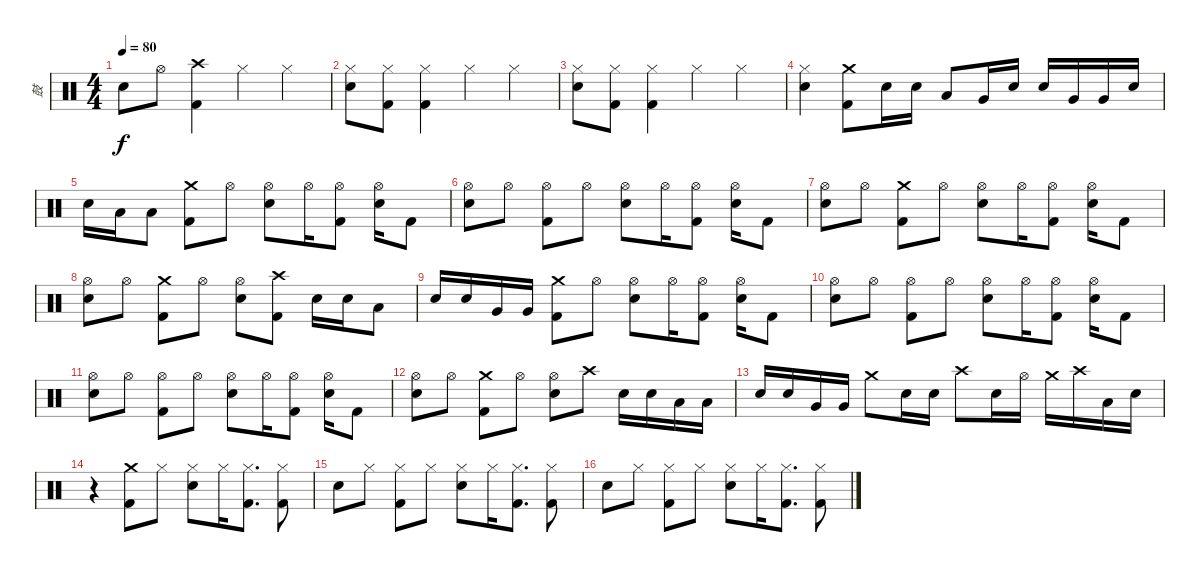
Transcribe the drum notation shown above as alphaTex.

\track ("鼓" "鼓") {instrument percussion}
\staff {score}
\articulation defaults
\ts (4 4)
\tempo 80
\clef neutral
\ks c "Snare (hit) 2".8{dy f} "Hi-Hat (open)".8
("Crash high (hit)" "Kick (hit) 2").4 "Hi-Hat (closed)".4 "Hi-Hat (closed)".4 |
("Hi-Hat (closed)" "Snare (hit) 2").8 ("Hi-Hat (closed)" "Kick (hit) 2").8 ("Hi-Hat (closed)" "Kick (hit) 2").4 "Hi-Hat (closed)".4 "Hi-Hat (closed)".4 |
("Hi-Hat (closed)" "Snare (hit) 2").8 ("Hi-Hat (closed)" "Kick (hit) 2").8 ("Hi-Hat (closed)" "Kick (hit) 2").4 "Hi-Hat (closed)".4 "Hi-Hat (closed)".4 |
("Hi-Hat (closed)" "Snare (hit) 2").4 ("Crash medium (hit)" "Kick (hit) 2").8 "Snare (hit) 2".16 "Snare (hit) 2".16 "Low Tom (hit)".8 "Very Low Tom (hit)".16 "Snare (hit) 2".16 "Snare (hit) 2".16 "Very Low Tom (hit)".16 "Very Low Tom (hit)".16 "Snare (hit) 2".16 |
"Snare (hit) 2".16 "Low Tom (hit)".16 "Low Tom (hit)".8 ("Crash medium (hit)" "Kick (hit) 2").8 "Hi-Hat (open)".8 ("Hi-Hat (open)" "Snare (hit) 2").8 "Hi-Hat (open)".16 ("Hi-Hat (open)" "Kick (hit) 2").8 ("Hi-Hat (open)" "Snare (hit) 2").16 "Kick (hit) 2".8 |
("Hi-Hat (open)" "Snare (hit) 2").8 "Hi-Hat (open)".8 ("Hi-Hat (open)" "Kick (hit) 2").8 "Hi-Hat (open)".8 ("Hi-Hat (open)" "Snare (hit) 2").8 "Hi-Hat (open)".16 ("Hi-Hat (open)" "Kick (hit) 2").8 ("Hi-Hat (open)" "Snare (hit) 2").16 "Kick (hit) 2".8 |
("Hi-Hat (open)" "Snare (hit) 2").8 "Hi-Hat (open)".8 ("Crash medium (hit)" "Kick (hit) 2").8 "Hi-Hat (open)".8 ("Hi-Hat (open)" "Snare (hit) 2").8 "Hi-Hat (open)".16 ("Hi-Hat (open)" "Kick (hit) 2").8 ("Hi-Hat (open)" "Snare (hit) 2").16 "Kick (hit) 2".8 |
("Hi-Hat (open)" "Snare (hit) 2").8 "Hi-Hat (open)".8 ("Crash medium (hit)" "Kick (hit) 2").8 "Hi-Hat (open)".8 ("Hi-Hat (open)" "Snare (hit) 2").8 ("Crash high (hit)" "Kick (hit) 2").8 "Snare (hit) 2".16 "Snare (hit) 2".16 "Low Tom (hit)".8 |
"Snare (hit) 2".16 "Snare (hit) 2".16 "Very Low Tom (hit)".16 "Very Low Tom (hit)".16 ("Crash medium (hit)" "Kick (hit) 2").8 "Hi-Hat (open)".8 ("Hi-Hat (open)" "Snare (hit) 2").8 "Hi-Hat (open)".16 ("Hi-Hat (open)" "Kick (hit) 2").8 ("Hi-Hat (open)" "Snare (hit) 2").16 "Kick (hit) 2".8 |
("Hi-Hat (open)" "Snare (hit) 2").8 "Hi-Hat (open)".8 ("Hi-Hat (open)" "Kick (hit) 2").8 "Hi-Hat (open)".8 ("Hi-Hat (open)" "Snare (hit) 2").8 "Hi-Hat (open)".16 ("Hi-Hat (open)" "Kick (hit) 2").8 ("Hi-Hat (open)" "Snare (hit) 2").16 "Kick (hit) 2".8 |
("Hi-Hat (open)" "Snare (hit) 2").8 "Hi-Hat (open)".8 ("Hi-Hat (open)" "Kick (hit) 2").8 "Hi-Hat (open)".8 ("Hi-Hat (open)" "Snare (hit) 2").8 "Hi-Hat (open)".16 ("Hi-Hat (open)" "Kick (hit) 2").8 ("Hi-Hat (open)" "Snare (hit) 2").16 "Kick (hit) 2".8 |
("Hi-Hat (open)" "Snare (hit) 2").8 "Hi-Hat (open)".8 ("Crash medium (hit)" "Kick (hit) 2").8 "Hi-Hat (open)".8 ("Hi-Hat (open)" "Snare (hit) 2").8 "Crash high (hit)".8 "Snare (hit) 2".16 "Snare (hit) 2".16 "Low Tom (hit)".16 "Low Tom (hit)".16 |
"Snare (hit) 2".16 "Snare (hit) 2".16 "Very Low Tom (hit)".16 "Very Low Tom (hit)".16 "Crash medium (hit)".8 "Snare (hit) 2".16 "Snare (hit) 2".16 "Crash high (hit)".8 "Snare (hit) 2".16 "Hi-Hat (open)".16 "Crash medium (hit)".16 "Crash high (hit)".16 "Low Tom (hit)".16 "Snare (hit)".16 |
r.4 ("Crash medium (hit)" "Kick (hit) 2").8 "Hi-Hat (closed)".8 ("Hi-Hat (closed)" "Snare (hit) 2").8 "Hi-Hat (closed)".16 ("Hi-Hat (closed)" "Kick (hit) 2").8{d} ("Hi-Hat (closed)" "Kick (hit) 2").8 |
"Snare (hit) 2".8 "Hi-Hat (closed)".8 ("Hi-Hat (closed)" "Kick (hit) 2").8 "Hi-Hat (closed)".8 ("Hi-Hat (closed)" "Snare (hit) 2").8 "Hi-Hat (closed)".16 ("Hi-Hat (closed)" "Kick (hit) 2").8{d} ("Hi-Hat (closed)" "Kick (hit) 2").8 |
"Snare (hit) 2".8 "Hi-Hat (closed)".8 ("Hi-Hat (closed)" "Kick (hit) 2").8 "Hi-Hat (closed)".8 ("Hi-Hat (closed)" "Snare (hit) 2").8 "Hi-Hat (closed)".16 ("Hi-Hat (closed)" "Kick (hit) 2").8{d} ("Hi-Hat (closed)" "Kick (hit) 2").8
